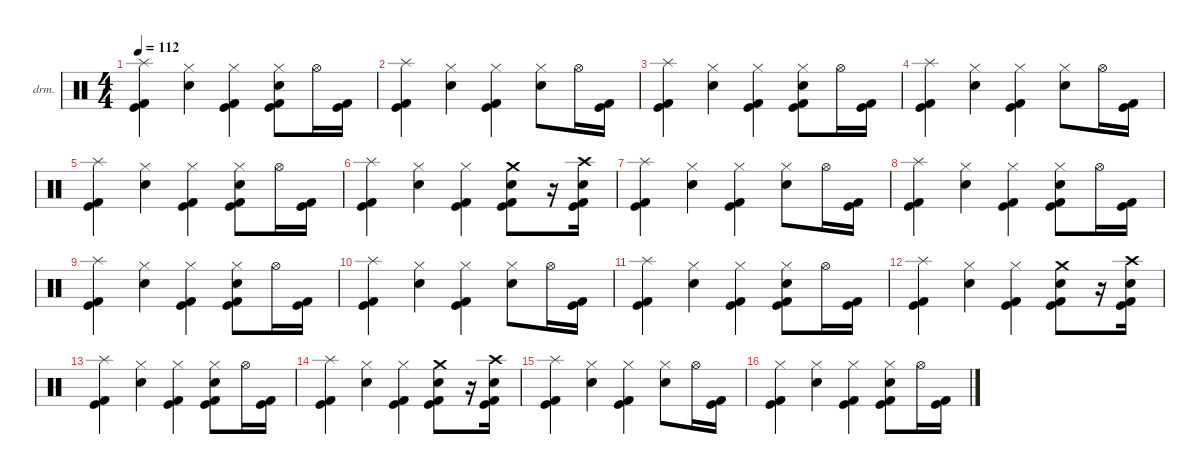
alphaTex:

\defaultSystemsLayout 4
\hideDynamics
\bracketExtendMode nobrackets
\firstSystemTrackNameOrientation horizontal
\otherSystemsTrackNameOrientation horizontal
\track ("Drums" "drm.") {instrument percussion}
\staff {score}
\articulation defaults
\ts (4 4)
\tempo 112
\clef neutral
\ks c
("Splash (hit)" "Kick (hit) 2" "Kick (hit)").4{dy f} ("Hi-Hat (closed)" "Snare (hit) 2").4 ("Hi-Hat (closed)" "Kick (hit) 2" "Kick (hit)").4 ("Hi-Hat (closed)" "Snare (hit) 2" "Kick (hit) 2" "Kick (hit)").8 "Hi-Hat (open)".16 ("Kick (hit) 2" "Kick (hit)").16 |
("Splash (hit)" "Kick (hit) 2" "Kick (hit)").4 ("Hi-Hat (closed)" "Snare (hit) 2").4 ("Hi-Hat (closed)" "Kick (hit) 2" "Kick (hit)").4 ("Hi-Hat (closed)" "Snare (hit) 2").8 "Hi-Hat (open)".16 ("Kick (hit) 2" "Kick (hit)").16 |
("Splash (hit)" "Kick (hit) 2" "Kick (hit)").4 ("Hi-Hat (closed)" "Snare (hit) 2").4 ("Hi-Hat (closed)" "Kick (hit) 2" "Kick (hit)").4 ("Hi-Hat (closed)" "Snare (hit) 2" "Kick (hit) 2" "Kick (hit)").8 "Hi-Hat (open)".16 ("Kick (hit) 2" "Kick (hit)").16 |
("Splash (hit)" "Kick (hit) 2" "Kick (hit)").4 ("Hi-Hat (closed)" "Snare (hit) 2").4 ("Hi-Hat (closed)" "Kick (hit) 2" "Kick (hit)").4 ("Hi-Hat (closed)" "Snare (hit) 2").8 "Hi-Hat (open)".16 ("Kick (hit) 2" "Kick (hit)").16 |
("Splash (hit)" "Kick (hit) 2" "Kick (hit)").4 ("Hi-Hat (closed)" "Snare (hit) 2").4 ("Hi-Hat (closed)" "Kick (hit) 2" "Kick (hit)").4 ("Hi-Hat (closed)" "Snare (hit) 2" "Kick (hit) 2" "Kick (hit)").8 "Hi-Hat (open)".16 ("Kick (hit) 2" "Kick (hit)").16 |
("Splash (hit)" "Kick (hit) 2" "Kick (hit)").4 ("Hi-Hat (closed)" "Snare (hit) 2").4 ("Hi-Hat (closed)" "Kick (hit) 2" "Kick (hit)").4 ("Crash medium (hit)" "Snare (hit) 2" "Kick (hit) 2" "Kick (hit)").8 r.16 ("Crash high (hit)" "Snare (hit) 2" "Kick (hit) 2" "Kick (hit)").16 |
("Splash (hit)" "Kick (hit) 2" "Kick (hit)").4 ("Hi-Hat (closed)" "Snare (hit) 2").4 ("Hi-Hat (closed)" "Kick (hit) 2" "Kick (hit)").4 ("Hi-Hat (closed)" "Snare (hit) 2").8 "Hi-Hat (open)".16 ("Kick (hit) 2" "Kick (hit)").16 |
("Splash (hit)" "Kick (hit) 2" "Kick (hit)").4 ("Hi-Hat (closed)" "Snare (hit) 2").4 ("Hi-Hat (closed)" "Kick (hit) 2" "Kick (hit)").4 ("Hi-Hat (closed)" "Snare (hit) 2" "Kick (hit) 2" "Kick (hit)").8 "Hi-Hat (open)".16 ("Kick (hit) 2" "Kick (hit)").16 |
("Splash (hit)" "Kick (hit) 2" "Kick (hit)").4 ("Hi-Hat (closed)" "Snare (hit) 2").4 ("Hi-Hat (closed)" "Kick (hit) 2" "Kick (hit)").4 ("Hi-Hat (closed)" "Snare (hit) 2" "Kick (hit) 2" "Kick (hit)").8 "Hi-Hat (open)".16 ("Kick (hit) 2" "Kick (hit)").16 |
("Splash (hit)" "Kick (hit) 2" "Kick (hit)").4 ("Hi-Hat (closed)" "Snare (hit) 2").4 ("Hi-Hat (closed)" "Kick (hit) 2" "Kick (hit)").4 ("Hi-Hat (closed)" "Snare (hit) 2").8 "Hi-Hat (open)".16 ("Kick (hit) 2" "Kick (hit)").16 |
("Splash (hit)" "Kick (hit) 2" "Kick (hit)").4 ("Hi-Hat (closed)" "Snare (hit) 2").4 ("Hi-Hat (closed)" "Kick (hit) 2" "Kick (hit)").4 ("Hi-Hat (closed)" "Snare (hit) 2" "Kick (hit) 2" "Kick (hit)").8 "Hi-Hat (open)".16 ("Kick (hit) 2" "Kick (hit)").16 |
("Splash (hit)" "Kick (hit) 2" "Kick (hit)").4 ("Hi-Hat (closed)" "Snare (hit) 2").4 ("Hi-Hat (closed)" "Kick (hit) 2" "Kick (hit)").4 ("Crash medium (hit)" "Snare (hit) 2" "Kick (hit) 2" "Kick (hit)").8 r.16 ("Crash high (hit)" "Snare (hit) 2" "Kick (hit) 2" "Kick (hit)").16 |
("Splash (hit)" "Kick (hit) 2" "Kick (hit)").4 ("Hi-Hat (closed)" "Snare (hit) 2").4 ("Hi-Hat (closed)" "Kick (hit) 2" "Kick (hit)").4 ("Hi-Hat (closed)" "Snare (hit) 2" "Kick (hit) 2" "Kick (hit)").8 "Hi-Hat (open)".16 ("Kick (hit) 2" "Kick (hit)").16 |
("Splash (hit)" "Kick (hit) 2" "Kick (hit)").4 ("Hi-Hat (closed)" "Snare (hit) 2").4 ("Hi-Hat (closed)" "Kick (hit) 2" "Kick (hit)").4 ("Crash medium (hit)" "Snare (hit) 2" "Kick (hit) 2" "Kick (hit)").8 r.16 ("Crash high (hit)" "Snare (hit) 2" "Kick (hit) 2" "Kick (hit)").16 |
("Splash (hit)" "Kick (hit) 2" "Kick (hit)").4 ("Hi-Hat (closed)" "Snare (hit) 2").4 ("Hi-Hat (closed)" "Kick (hit) 2" "Kick (hit)").4 ("Hi-Hat (closed)" "Snare (hit) 2").8 "Hi-Hat (open)".16 ("Kick (hit) 2" "Kick (hit)").16 |
("Hi-Hat (closed)" "Kick (hit) 2" "Kick (hit)").4 ("Hi-Hat (closed)" "Snare (hit) 2").4 ("Hi-Hat (closed)" "Kick (hit) 2" "Kick (hit)").4 ("Hi-Hat (closed)" "Snare (hit) 2" "Kick (hit) 2" "Kick (hit)").8 "Hi-Hat (open)".16 ("Kick (hit) 2" "Kick (hit)").16
